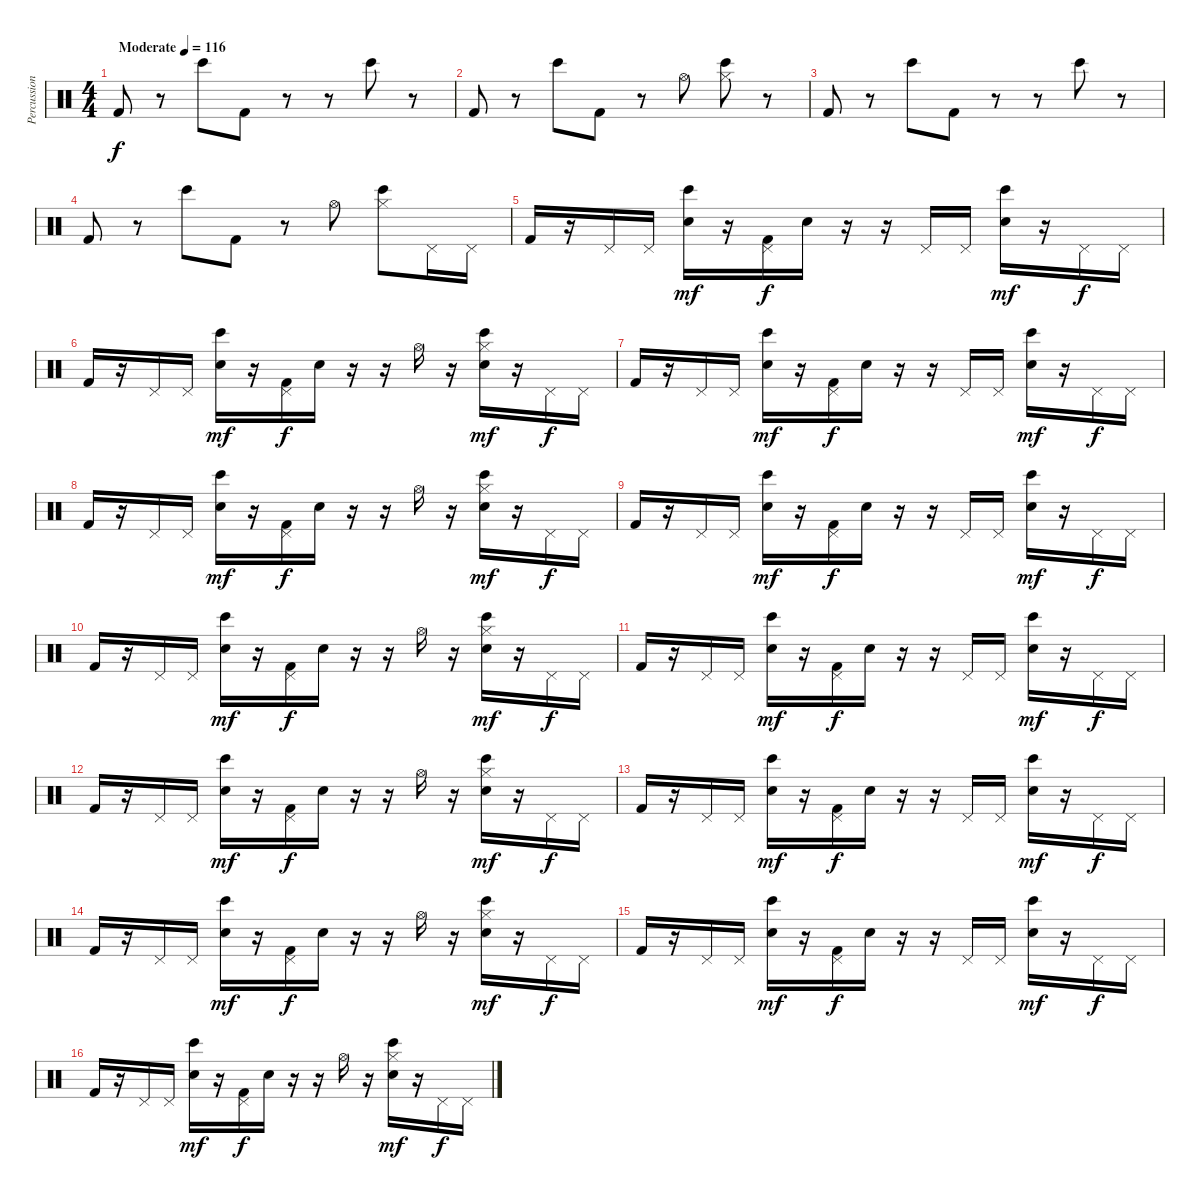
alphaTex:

\track ("Percussion" "Percussion") {instrument percussion}
\staff {score}
\articulation defaults
\ts (4 4)
\tempo (116 "Moderate")
\clef neutral
\ks c "Kick (hit) 2".8{dy f}
r.8 "Bongo High (hit)".8 "Kick (hit) 2".8 r.8 r.8 "Bongo High (hit)".8 r.8 |
"Kick (hit) 2".8 r.8 "Bongo High (hit)".8 "Kick (hit) 2".8 r.8 "Hi-Hat (open)".8 ("Hi-Hat (closed)" "Bongo High (hit)").8 r.8 |
"Kick (hit) 2".8 r.8 "Bongo High (hit)".8 "Kick (hit) 2".8 r.8 r.8 "Bongo High (hit)".8 r.8 |
"Kick (hit) 2".8 r.8 "Bongo High (hit)".8 "Kick (hit) 2".8 r.8 "Hi-Hat (open)".8 ("Hi-Hat (closed)" "Bongo High (hit)").8 "Pedal Hi-Hat (hit)".16 "Pedal Hi-Hat (hit)".16 |
"Kick (hit) 2".16 r.16 "Pedal Hi-Hat (hit)".16 "Pedal Hi-Hat (hit)".16 ("Bongo High (hit)" "Hand Clap (hit)").16{dy mf} r.16 ("Pedal Hi-Hat (hit)" "Kick (hit) 2").16{dy f} "Snare (hit)".16 r.16 r.16 "Pedal Hi-Hat (hit)".16 "Pedal Hi-Hat (hit)".16 ("Bongo High (hit)" "Hand Clap (hit)").16{dy mf} r.16 "Pedal Hi-Hat (hit)".16{dy f} "Pedal Hi-Hat (hit)".16 |
"Kick (hit) 2".16 r.16 "Pedal Hi-Hat (hit)".16 "Pedal Hi-Hat (hit)".16 ("Bongo High (hit)" "Hand Clap (hit)").16{dy mf} r.16 ("Pedal Hi-Hat (hit)" "Kick (hit) 2").16{dy f} "Snare (hit)".16 r.16 r.16 "Hi-Hat (open)".16 r.16 ("Hi-Hat (closed)" "Bongo High (hit)" "Hand Clap (hit)").16{dy mf} r.16 "Pedal Hi-Hat (hit)".16{dy f} "Pedal Hi-Hat (hit)".16 |
"Kick (hit) 2".16 r.16 "Pedal Hi-Hat (hit)".16 "Pedal Hi-Hat (hit)".16 ("Bongo High (hit)" "Hand Clap (hit)").16{dy mf} r.16 ("Pedal Hi-Hat (hit)" "Kick (hit) 2").16{dy f} "Snare (hit)".16 r.16 r.16 "Pedal Hi-Hat (hit)".16 "Pedal Hi-Hat (hit)".16 ("Bongo High (hit)" "Hand Clap (hit)").16{dy mf} r.16 "Pedal Hi-Hat (hit)".16{dy f} "Pedal Hi-Hat (hit)".16 |
"Kick (hit) 2".16 r.16 "Pedal Hi-Hat (hit)".16 "Pedal Hi-Hat (hit)".16 ("Bongo High (hit)" "Hand Clap (hit)").16{dy mf} r.16 ("Pedal Hi-Hat (hit)" "Kick (hit) 2").16{dy f} "Snare (hit)".16 r.16 r.16 "Hi-Hat (open)".16 r.16 ("Hi-Hat (closed)" "Bongo High (hit)" "Hand Clap (hit)").16{dy mf} r.16 "Pedal Hi-Hat (hit)".16{dy f} "Pedal Hi-Hat (hit)".16 |
"Kick (hit) 2".16 r.16 "Pedal Hi-Hat (hit)".16 "Pedal Hi-Hat (hit)".16 ("Bongo High (hit)" "Hand Clap (hit)").16{dy mf} r.16 ("Pedal Hi-Hat (hit)" "Kick (hit) 2").16{dy f} "Snare (hit)".16 r.16 r.16 "Pedal Hi-Hat (hit)".16 "Pedal Hi-Hat (hit)".16 ("Bongo High (hit)" "Hand Clap (hit)").16{dy mf} r.16 "Pedal Hi-Hat (hit)".16{dy f} "Pedal Hi-Hat (hit)".16 |
"Kick (hit) 2".16 r.16 "Pedal Hi-Hat (hit)".16 "Pedal Hi-Hat (hit)".16 ("Bongo High (hit)" "Hand Clap (hit)").16{dy mf} r.16 ("Pedal Hi-Hat (hit)" "Kick (hit) 2").16{dy f} "Snare (hit)".16 r.16 r.16 "Hi-Hat (open)".16 r.16 ("Hi-Hat (closed)" "Bongo High (hit)" "Hand Clap (hit)").16{dy mf} r.16 "Pedal Hi-Hat (hit)".16{dy f} "Pedal Hi-Hat (hit)".16 |
"Kick (hit) 2".16 r.16 "Pedal Hi-Hat (hit)".16 "Pedal Hi-Hat (hit)".16 ("Bongo High (hit)" "Hand Clap (hit)").16{dy mf} r.16 ("Pedal Hi-Hat (hit)" "Kick (hit) 2").16{dy f} "Snare (hit)".16 r.16 r.16 "Pedal Hi-Hat (hit)".16 "Pedal Hi-Hat (hit)".16 ("Bongo High (hit)" "Hand Clap (hit)").16{dy mf} r.16 "Pedal Hi-Hat (hit)".16{dy f} "Pedal Hi-Hat (hit)".16 |
"Kick (hit) 2".16 r.16 "Pedal Hi-Hat (hit)".16 "Pedal Hi-Hat (hit)".16 ("Bongo High (hit)" "Hand Clap (hit)").16{dy mf} r.16 ("Pedal Hi-Hat (hit)" "Kick (hit) 2").16{dy f} "Snare (hit)".16 r.16 r.16 "Hi-Hat (open)".16 r.16 ("Hi-Hat (closed)" "Bongo High (hit)" "Hand Clap (hit)").16{dy mf} r.16 "Pedal Hi-Hat (hit)".16{dy f} "Pedal Hi-Hat (hit)".16 |
"Kick (hit) 2".16 r.16 "Pedal Hi-Hat (hit)".16 "Pedal Hi-Hat (hit)".16 ("Bongo High (hit)" "Hand Clap (hit)").16{dy mf} r.16 ("Pedal Hi-Hat (hit)" "Kick (hit) 2").16{dy f} "Snare (hit)".16 r.16 r.16 "Pedal Hi-Hat (hit)".16 "Pedal Hi-Hat (hit)".16 ("Bongo High (hit)" "Hand Clap (hit)").16{dy mf} r.16 "Pedal Hi-Hat (hit)".16{dy f} "Pedal Hi-Hat (hit)".16 |
"Kick (hit) 2".16 r.16 "Pedal Hi-Hat (hit)".16 "Pedal Hi-Hat (hit)".16 ("Bongo High (hit)" "Hand Clap (hit)").16{dy mf} r.16 ("Pedal Hi-Hat (hit)" "Kick (hit) 2").16{dy f} "Snare (hit)".16 r.16 r.16 "Hi-Hat (open)".16 r.16 ("Hi-Hat (closed)" "Bongo High (hit)" "Hand Clap (hit)").16{dy mf} r.16 "Pedal Hi-Hat (hit)".16{dy f} "Pedal Hi-Hat (hit)".16 |
"Kick (hit) 2".16 r.16 "Pedal Hi-Hat (hit)".16 "Pedal Hi-Hat (hit)".16 ("Bongo High (hit)" "Hand Clap (hit)").16{dy mf} r.16 ("Pedal Hi-Hat (hit)" "Kick (hit) 2").16{dy f} "Snare (hit)".16 r.16 r.16 "Pedal Hi-Hat (hit)".16 "Pedal Hi-Hat (hit)".16 ("Bongo High (hit)" "Hand Clap (hit)").16{dy mf} r.16 "Pedal Hi-Hat (hit)".16{dy f} "Pedal Hi-Hat (hit)".16 |
"Kick (hit) 2".16 r.16 "Pedal Hi-Hat (hit)".16 "Pedal Hi-Hat (hit)".16 ("Bongo High (hit)" "Hand Clap (hit)").16{dy mf} r.16 ("Pedal Hi-Hat (hit)" "Kick (hit) 2").16{dy f} "Snare (hit)".16 r.16 r.16 "Hi-Hat (open)".16 r.16 ("Hi-Hat (closed)" "Bongo High (hit)" "Hand Clap (hit)").16{dy mf} r.16 "Pedal Hi-Hat (hit)".16{dy f} "Pedal Hi-Hat (hit)".16
